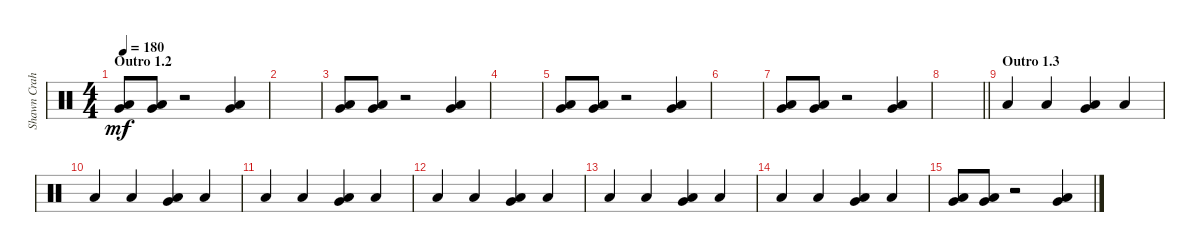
\track ("Shawn Crahan" "Shawn Crah") {instrument percussion}
\staff {score}
\articulation defaults
\ts (4 4)
\section ("" "Outro 1.2")
\tempo 180
\clef neutral
\ks c
("Very Low Tom (hit)" "Low Floor Tom (hit)").8{dy mf} ("Very Low Tom (hit)" "Low Floor Tom (hit)").8 r.2 ("Very Low Tom (hit)" "Low Floor Tom (hit)").4 |
|
("Very Low Tom (hit)" "Low Floor Tom (hit)").8 ("Very Low Tom (hit)" "Low Floor Tom (hit)").8 r.2 ("Very Low Tom (hit)" "Low Floor Tom (hit)").4 |
|
("Very Low Tom (hit)" "Low Floor Tom (hit)").8 ("Very Low Tom (hit)" "Low Floor Tom (hit)").8 r.2 ("Very Low Tom (hit)" "Low Floor Tom (hit)").4 |
|
("Very Low Tom (hit)" "Low Floor Tom (hit)").8 ("Very Low Tom (hit)" "Low Floor Tom (hit)").8 r.2 ("Very Low Tom (hit)" "Low Floor Tom (hit)").4 |
\barLineRight lightlight
|
\section ("" "Outro 1.3")
"Low Floor Tom (hit)".4 "Low Floor Tom (hit)".4 ("Very Low Tom (hit)" "Low Floor Tom (hit)").4 "Low Floor Tom (hit)".4 |
"Low Floor Tom (hit)".4 "Low Floor Tom (hit)".4 ("Very Low Tom (hit)" "Low Floor Tom (hit)").4 "Low Floor Tom (hit)".4 |
"Low Floor Tom (hit)".4 "Low Floor Tom (hit)".4 ("Very Low Tom (hit)" "Low Floor Tom (hit)").4 "Low Floor Tom (hit)".4 |
"Low Floor Tom (hit)".4 "Low Floor Tom (hit)".4 ("Very Low Tom (hit)" "Low Floor Tom (hit)").4 "Low Floor Tom (hit)".4 |
"Low Floor Tom (hit)".4 "Low Floor Tom (hit)".4 ("Very Low Tom (hit)" "Low Floor Tom (hit)").4 "Low Floor Tom (hit)".4 |
"Low Floor Tom (hit)".4 "Low Floor Tom (hit)".4 ("Very Low Tom (hit)" "Low Floor Tom (hit)").4 "Low Floor Tom (hit)".4 |
("Very Low Tom (hit)" "Low Floor Tom (hit)").8 ("Very Low Tom (hit)" "Low Floor Tom (hit)").8 r.2 ("Very Low Tom (hit)" "Low Floor Tom (hit)").4
